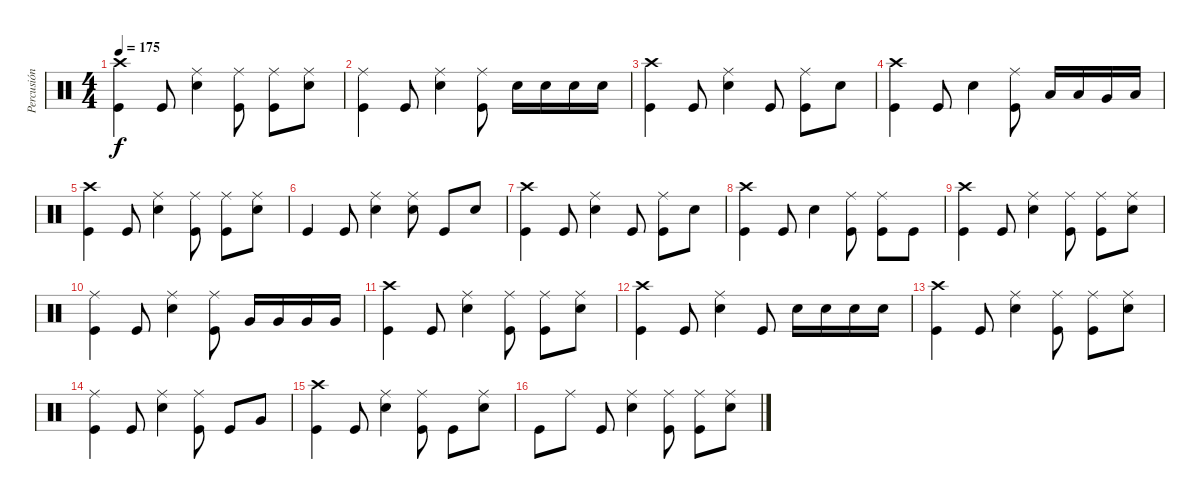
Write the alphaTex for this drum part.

\track ("Percusión" "Percusión") {instrument percussion}
\staff {score}
\articulation defaults
\ts (4 4)
\tempo 175
\clef neutral
\ks c
("Kick (hit)" "Crash high (hit)").4{dy f} "Kick (hit)".8 ("Snare (hit) 2" "Ride (middle)").4 ("Kick (hit)" "Ride (middle)").8 ("Kick (hit)" "Ride (middle)").8 ("Snare (hit) 2" "Ride (middle)").8 |
("Kick (hit)" "Ride (middle)").4 "Kick (hit)".8 ("Snare (hit) 2" "Ride (middle)").4 ("Kick (hit)" "Ride (middle)").8 "Snare (hit) 2".16 "Snare (hit) 2".16 "Snare (hit) 2".16 "Snare (hit) 2".16 |
("Kick (hit)" "Crash high (hit)").4 "Kick (hit)".8 ("Snare (hit) 2" "Ride (middle)").4 "Kick (hit)".8 ("Kick (hit)" "Ride (middle)").8 "Snare (hit) 2".8 |
("Kick (hit)" "Crash high (hit)").4 "Kick (hit)".8 "Snare (hit) 2".4 ("Kick (hit)" "Ride (middle)").8 "Low Tom (hit)".16 "Low Tom (hit)".16 "Very Low Tom (hit)".16 "Low Floor Tom (hit)".16 |
("Kick (hit)" "Crash high (hit)").4 "Kick (hit)".8 ("Snare (hit) 2" "Ride (middle)").4 ("Kick (hit)" "Ride (middle)").8 ("Kick (hit)" "Ride (middle)").8 ("Snare (hit) 2" "Ride (middle)").8 |
"Kick (hit)".4 "Kick (hit)".8 ("Snare (hit) 2" "Ride (middle)").4 ("Snare (hit) 2" "Ride (middle)").8 "Kick (hit)".8 "Snare (hit) 2".8 |
("Kick (hit)" "Crash high (hit)").4 "Kick (hit)".8 ("Snare (hit) 2" "Ride (middle)").4 "Kick (hit)".8 ("Kick (hit)" "Ride (middle)").8 "Snare (hit) 2".8 |
("Kick (hit)" "Crash high (hit)").4 "Kick (hit)".8 "Snare (hit) 2".4 ("Kick (hit)" "Ride (middle)").8 ("Kick (hit)" "Ride (middle)").8 "Kick (hit)".8 |
("Kick (hit)" "Crash high (hit)").4 "Kick (hit)".8 ("Snare (hit) 2" "Ride (middle)").4 ("Kick (hit)" "Ride (middle)").8 ("Kick (hit)" "Ride (middle)").8 ("Snare (hit) 2" "Ride (middle)").8 |
("Kick (hit)" "Ride (middle)").4 "Kick (hit)".8 ("Snare (hit) 2" "Ride (middle)").4 ("Kick (hit)" "Ride (middle)").8 "Very Low Tom (hit)".16 "Very Low Tom (hit)".16 "Very Low Tom (hit)".16 "Very Low Tom (hit)".16 |
("Kick (hit)" "Crash high (hit)").4 "Kick (hit)".8 ("Snare (hit) 2" "Ride (middle)").4 ("Kick (hit)" "Ride (middle)").8 ("Kick (hit)" "Ride (middle)").8 ("Snare (hit) 2" "Ride (middle)").8 |
("Kick (hit)" "Crash high (hit)").4 "Kick (hit)".8 ("Snare (hit) 2" "Ride (middle)").4 "Kick (hit)".8 "Snare (hit) 2".16 "Snare (hit) 2".16 "Snare (hit) 2".16 "Snare (hit) 2".16 |
("Kick (hit)" "Crash high (hit)").4 "Kick (hit)".8 ("Snare (hit) 2" "Ride (middle)").4 ("Kick (hit)" "Ride (middle)").8 ("Kick (hit)" "Ride (middle)").8 ("Snare (hit) 2" "Ride (middle)").8 |
("Kick (hit)" "Ride (middle)").4 "Kick (hit)".8 ("Snare (hit) 2" "Ride (middle)").4 ("Kick (hit)" "Ride (middle)").8 "Kick (hit)".8 "Very Low Tom (hit)".8 |
("Kick (hit)" "Crash high (hit)").4 "Kick (hit)".8 ("Snare (hit) 2" "Ride (middle)").4 ("Kick (hit)" "Ride (middle)").8 "Kick (hit)".8 ("Snare (hit) 2" "Ride (middle)").8 |
"Kick (hit)".8 "Ride (middle)".8 "Kick (hit)".8 ("Snare (hit) 2" "Ride (middle)").4 ("Kick (hit)" "Ride (middle)").8 ("Kick (hit)" "Ride (middle)").8 ("Snare (hit) 2" "Ride (middle)").8
